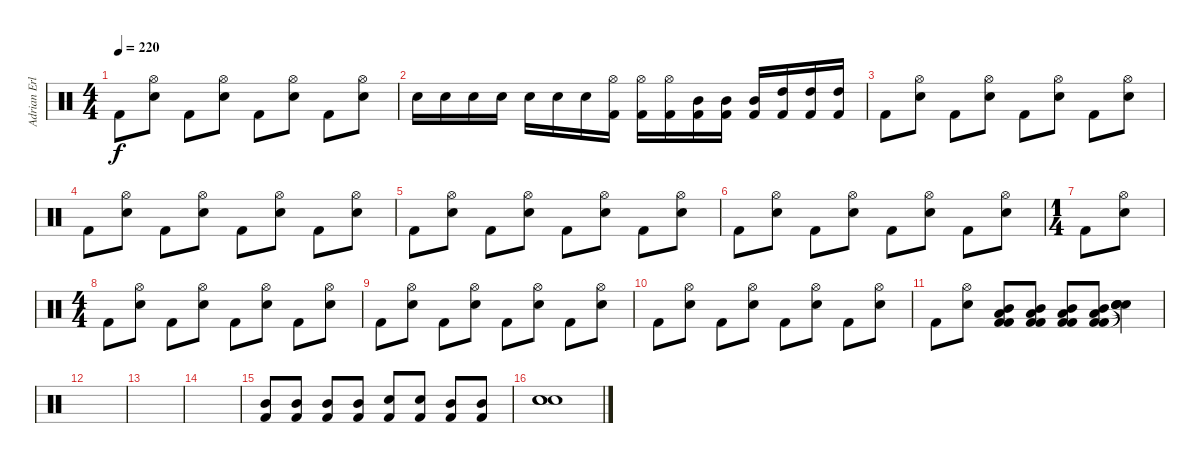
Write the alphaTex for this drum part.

\track ("Adrian Erlandsson" "Adrian Erl") {instrument percussion}
\staff {score}
\articulation defaults
\ts (4 4)
\tempo 220
\clef neutral
\ks c "Kick (hit) 2".8{dy f}
("Hi-Hat (open)" "Snare (hit) 2").8 "Kick (hit) 2".8 ("Hi-Hat (open)" "Snare (hit) 2").8 "Kick (hit) 2".8 ("Hi-Hat (open)" "Snare (hit) 2").8 "Kick (hit) 2".8 ("Hi-Hat (open)" "Snare (hit) 2").8 |
"Snare (hit) 2".16 "Snare (hit) 2".16 "Snare (hit) 2".16 "Snare (hit) 2".16 "Snare (hit) 2".16 "Snare (hit) 2".16 "Snare (hit) 2".16 ("Hi-Hat (open)" "Kick (hit) 2").16 ("Hi-Hat (open)" "Kick (hit) 2").16 ("Hi-Hat (open)" "Kick (hit) 2").16 ("Mid Tom (hit)" "Kick (hit) 2").16 ("Mid Tom (hit)" "Kick (hit) 2").16 ("Mid Tom (hit)" "Kick (hit) 2").16 ("High Tom (hit)" "Kick (hit) 2").16 ("High Tom (hit)" "Kick (hit) 2").16 ("High Tom (hit)" "Kick (hit) 2").16 |
"Kick (hit) 2".8 ("Hi-Hat (open)" "Snare (hit) 2").8 "Kick (hit) 2".8 ("Hi-Hat (open)" "Snare (hit) 2").8 "Kick (hit) 2".8 ("Hi-Hat (open)" "Snare (hit) 2").8 "Kick (hit) 2".8 ("Hi-Hat (open)" "Snare (hit) 2").8 |
"Kick (hit) 2".8 ("Hi-Hat (open)" "Snare (hit) 2").8 "Kick (hit) 2".8 ("Hi-Hat (open)" "Snare (hit) 2").8 "Kick (hit) 2".8 ("Hi-Hat (open)" "Snare (hit) 2").8 "Kick (hit) 2".8 ("Hi-Hat (open)" "Snare (hit) 2").8 |
"Kick (hit) 2".8 ("Hi-Hat (open)" "Snare (hit) 2").8 "Kick (hit) 2".8 ("Hi-Hat (open)" "Snare (hit) 2").8 "Kick (hit) 2".8 ("Hi-Hat (open)" "Snare (hit) 2").8 "Kick (hit) 2".8 ("Hi-Hat (open)" "Snare (hit) 2").8 |
"Kick (hit) 2".8 ("Hi-Hat (open)" "Snare (hit) 2").8 "Kick (hit) 2".8 ("Hi-Hat (open)" "Snare (hit) 2").8 "Kick (hit) 2".8 ("Hi-Hat (open)" "Snare (hit) 2").8 "Kick (hit) 2".8 ("Hi-Hat (open)" "Snare (hit) 2").8 |
\ts (1 4)
"Kick (hit) 2".8 ("Hi-Hat (open)" "Snare (hit) 2").8 |
\ts (4 4)
"Kick (hit) 2".8 ("Hi-Hat (open)" "Snare (hit) 2").8 "Kick (hit) 2".8 ("Hi-Hat (open)" "Snare (hit) 2").8 "Kick (hit) 2".8 ("Hi-Hat (open)" "Snare (hit) 2").8 "Kick (hit) 2".8 ("Hi-Hat (open)" "Snare (hit) 2").8 |
"Kick (hit) 2".8 ("Hi-Hat (open)" "Snare (hit) 2").8 "Kick (hit) 2".8 ("Hi-Hat (open)" "Snare (hit) 2").8 "Kick (hit) 2".8 ("Hi-Hat (open)" "Snare (hit) 2").8 "Kick (hit) 2".8 ("Hi-Hat (open)" "Snare (hit) 2").8 |
"Kick (hit) 2".8 ("Hi-Hat (open)" "Snare (hit) 2").8 "Kick (hit) 2".8 ("Hi-Hat (open)" "Snare (hit) 2").8 "Kick (hit) 2".8 ("Hi-Hat (open)" "Snare (hit) 2").8 "Kick (hit) 2".8 ("Hi-Hat (open)" "Snare (hit) 2").8 |
"Kick (hit) 2".8 ("Hi-Hat (open)" "Snare (hit) 2").8 ("Mid Tom (hit)" "Low Tom (hit)" "Kick (hit) 2" "Kick (hit) 2").8 ("Mid Tom (hit)" "Low Tom (hit)" "Kick (hit) 2" "Kick (hit) 2").8 ("Mid Tom (hit)" "Low Tom (hit)" "Kick (hit) 2" "Kick (hit) 2").8 ("Mid Tom (hit)" "Low Tom (hit)" "Kick (hit) 2" "Kick (hit) 2").8 ("Snare (hit)"{t} "Snare (hit)"{t} "Snare (hit)"{t} "Snare (hit)"{t}).4 |
|
|
|
("Mid Tom (hit)" "Kick (hit) 2").8 ("Mid Tom (hit)" "Kick (hit) 2").8 ("Mid Tom (hit)" "Kick (hit) 2").8 ("Mid Tom (hit)" "Kick (hit) 2").8 ("Snare (hit) 2" "Kick (hit) 2").8 ("Snare (hit) 2" "Kick (hit) 2").8 ("Mid Tom (hit)" "Kick (hit) 2").8 ("Mid Tom (hit)" "Kick (hit) 2").8 |
("Snare (hit) 2" "Snare (hit) 2" "Snare (hit) 2").1
